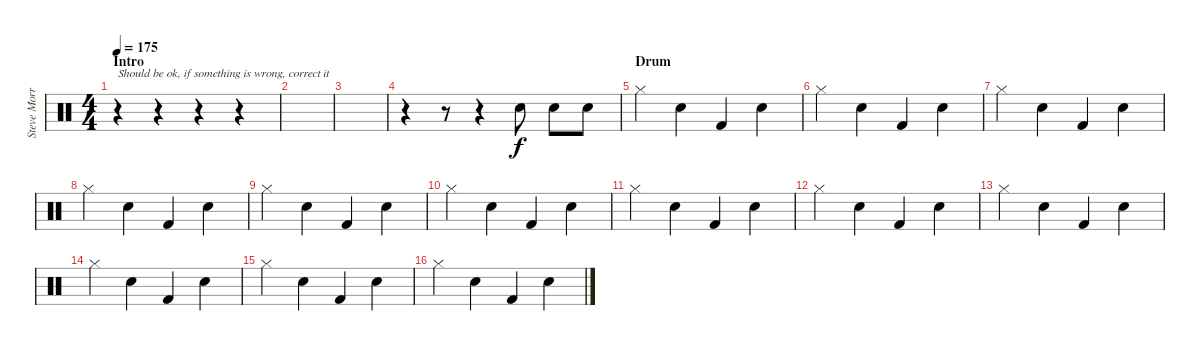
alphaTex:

\track ("Steve Morris" "Steve Morr") {instrument percussion}
\staff {score}
\articulation defaults
\ts (4 4)
\section ("" "Intro")
\tempo 175
\clef neutral
\ks c
r.4{txt "Should be ok, if something is wrong, correct it" dy f} r.4 r.4 r.4 |
|
|
r.4 r.8 r.4 "Snare (hit) 2".8 "Snare (hit) 2".8 "Snare (hit) 2".8 |
\section ("" "Drum")
"Hi-Hat (closed)".4 "Snare (hit) 2".4 "Kick (hit) 2".4 "Snare (hit) 2".4 |
"Hi-Hat (closed)".4 "Snare (hit) 2".4 "Kick (hit) 2".4 "Snare (hit) 2".4 |
"Hi-Hat (closed)".4 "Snare (hit) 2".4 "Kick (hit) 2".4 "Snare (hit) 2".4 |
"Hi-Hat (closed)".4 "Snare (hit) 2".4 "Kick (hit) 2".4 "Snare (hit) 2".4 |
"Hi-Hat (closed)".4 "Snare (hit) 2".4 "Kick (hit) 2".4 "Snare (hit) 2".4 |
"Hi-Hat (closed)".4 "Snare (hit) 2".4 "Kick (hit) 2".4 "Snare (hit) 2".4 |
"Hi-Hat (closed)".4 "Snare (hit) 2".4 "Kick (hit) 2".4 "Snare (hit) 2".4 |
"Hi-Hat (closed)".4 "Snare (hit) 2".4 "Kick (hit) 2".4 "Snare (hit) 2".4 |
"Hi-Hat (closed)".4 "Snare (hit) 2".4 "Kick (hit) 2".4 "Snare (hit) 2".4 |
"Hi-Hat (closed)".4 "Snare (hit) 2".4 "Kick (hit) 2".4 "Snare (hit) 2".4 |
"Hi-Hat (closed)".4 "Snare (hit) 2".4 "Kick (hit) 2".4 "Snare (hit) 2".4 |
"Hi-Hat (closed)".4 "Snare (hit) 2".4 "Kick (hit) 2".4 "Snare (hit) 2".4
